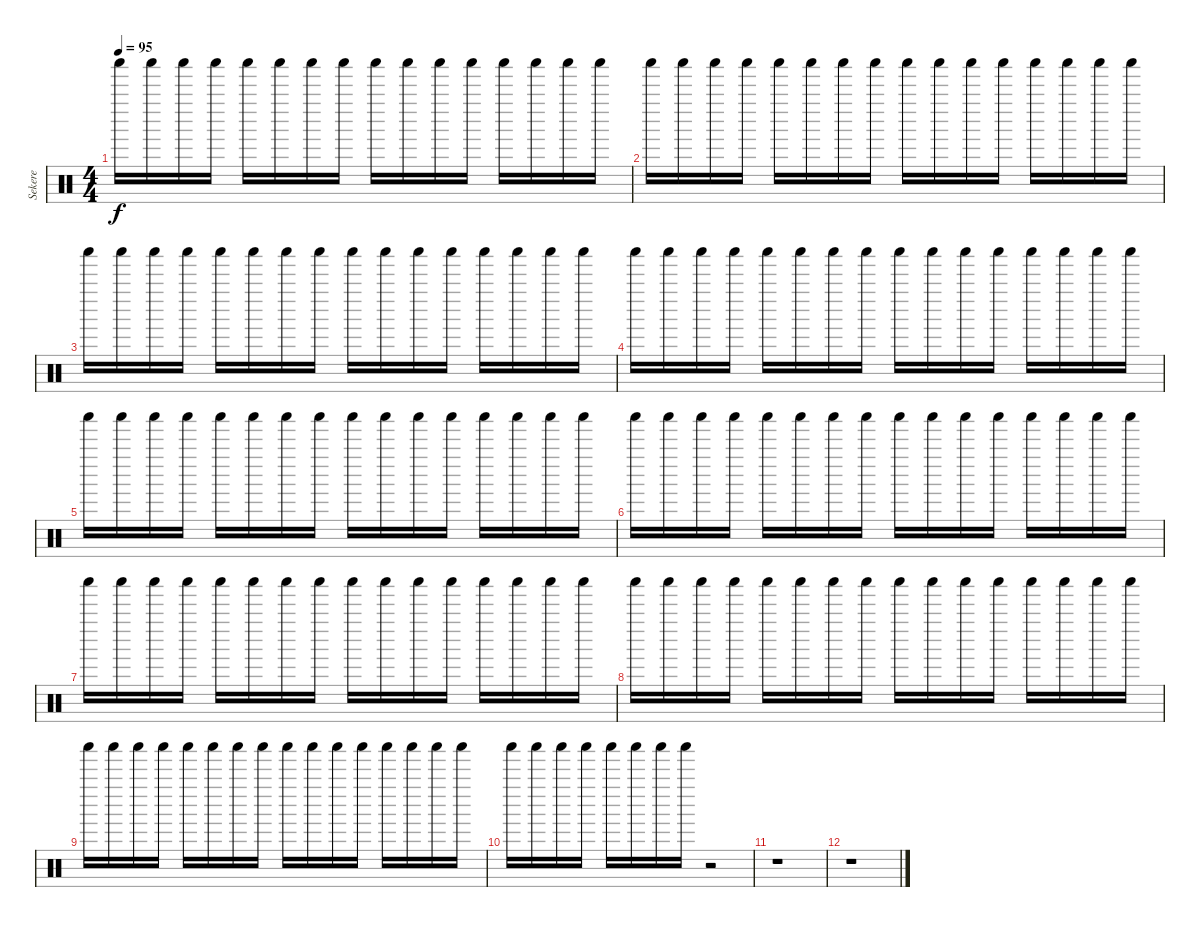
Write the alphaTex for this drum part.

\track ("Sekere" "Sekere") {instrument percussion}
\staff {score}
\articulation defaults
\ts (4 4)
\tempo 95
\clef neutral
\ks c "Shaker (hit)".16{dy f} "Shaker (hit)".16 "Shaker (hit)".16 "Shaker (hit)".16 "Shaker (hit)".16 "Shaker (hit)".16 "Shaker (hit)".16 "Shaker (hit)".16 "Shaker (hit)".16 "Shaker (hit)".16 "Shaker (hit)".16 "Shaker (hit)".16 "Shaker (hit)".16 "Shaker (hit)".16 "Shaker (hit)".16 "Shaker (hit)".16
|
"Shaker (hit)".16 "Shaker (hit)".16 "Shaker (hit)".16 "Shaker (hit)".16 "Shaker (hit)".16 "Shaker (hit)".16 "Shaker (hit)".16 "Shaker (hit)".16 "Shaker (hit)".16 "Shaker (hit)".16 "Shaker (hit)".16 "Shaker (hit)".16 "Shaker (hit)".16 "Shaker (hit)".16 "Shaker (hit)".16 "Shaker (hit)".16 |
"Shaker (hit)".16 "Shaker (hit)".16 "Shaker (hit)".16 "Shaker (hit)".16 "Shaker (hit)".16 "Shaker (hit)".16 "Shaker (hit)".16 "Shaker (hit)".16 "Shaker (hit)".16 "Shaker (hit)".16 "Shaker (hit)".16 "Shaker (hit)".16 "Shaker (hit)".16 "Shaker (hit)".16 "Shaker (hit)".16 "Shaker (hit)".16 |
"Shaker (hit)".16 "Shaker (hit)".16 "Shaker (hit)".16 "Shaker (hit)".16 "Shaker (hit)".16 "Shaker (hit)".16 "Shaker (hit)".16 "Shaker (hit)".16 "Shaker (hit)".16 "Shaker (hit)".16 "Shaker (hit)".16 "Shaker (hit)".16 "Shaker (hit)".16 "Shaker (hit)".16 "Shaker (hit)".16 "Shaker (hit)".16 |
"Shaker (hit)".16 "Shaker (hit)".16 "Shaker (hit)".16 "Shaker (hit)".16 "Shaker (hit)".16 "Shaker (hit)".16 "Shaker (hit)".16 "Shaker (hit)".16 "Shaker (hit)".16 "Shaker (hit)".16 "Shaker (hit)".16 "Shaker (hit)".16 "Shaker (hit)".16 "Shaker (hit)".16 "Shaker (hit)".16 "Shaker (hit)".16 |
"Shaker (hit)".16 "Shaker (hit)".16 "Shaker (hit)".16 "Shaker (hit)".16 "Shaker (hit)".16 "Shaker (hit)".16 "Shaker (hit)".16 "Shaker (hit)".16 "Shaker (hit)".16 "Shaker (hit)".16 "Shaker (hit)".16 "Shaker (hit)".16 "Shaker (hit)".16 "Shaker (hit)".16 "Shaker (hit)".16 "Shaker (hit)".16 |
"Shaker (hit)".16 "Shaker (hit)".16 "Shaker (hit)".16 "Shaker (hit)".16 "Shaker (hit)".16 "Shaker (hit)".16 "Shaker (hit)".16 "Shaker (hit)".16 "Shaker (hit)".16 "Shaker (hit)".16 "Shaker (hit)".16 "Shaker (hit)".16 "Shaker (hit)".16 "Shaker (hit)".16 "Shaker (hit)".16 "Shaker (hit)".16 |
"Shaker (hit)".16 "Shaker (hit)".16 "Shaker (hit)".16 "Shaker (hit)".16 "Shaker (hit)".16 "Shaker (hit)".16 "Shaker (hit)".16 "Shaker (hit)".16 "Shaker (hit)".16 "Shaker (hit)".16 "Shaker (hit)".16 "Shaker (hit)".16 "Shaker (hit)".16 "Shaker (hit)".16 "Shaker (hit)".16 "Shaker (hit)".16 |
"Shaker (hit)".16 "Shaker (hit)".16 "Shaker (hit)".16 "Shaker (hit)".16 "Shaker (hit)".16 "Shaker (hit)".16 "Shaker (hit)".16 "Shaker (hit)".16 "Shaker (hit)".16 "Shaker (hit)".16 "Shaker (hit)".16 "Shaker (hit)".16 "Shaker (hit)".16 "Shaker (hit)".16 "Shaker (hit)".16 "Shaker (hit)".16 |
"Shaker (hit)".16 "Shaker (hit)".16 "Shaker (hit)".16 "Shaker (hit)".16 "Shaker (hit)".16 "Shaker (hit)".16 "Shaker (hit)".16 "Shaker (hit)".16 r.2 |
r.1 |
r.1
